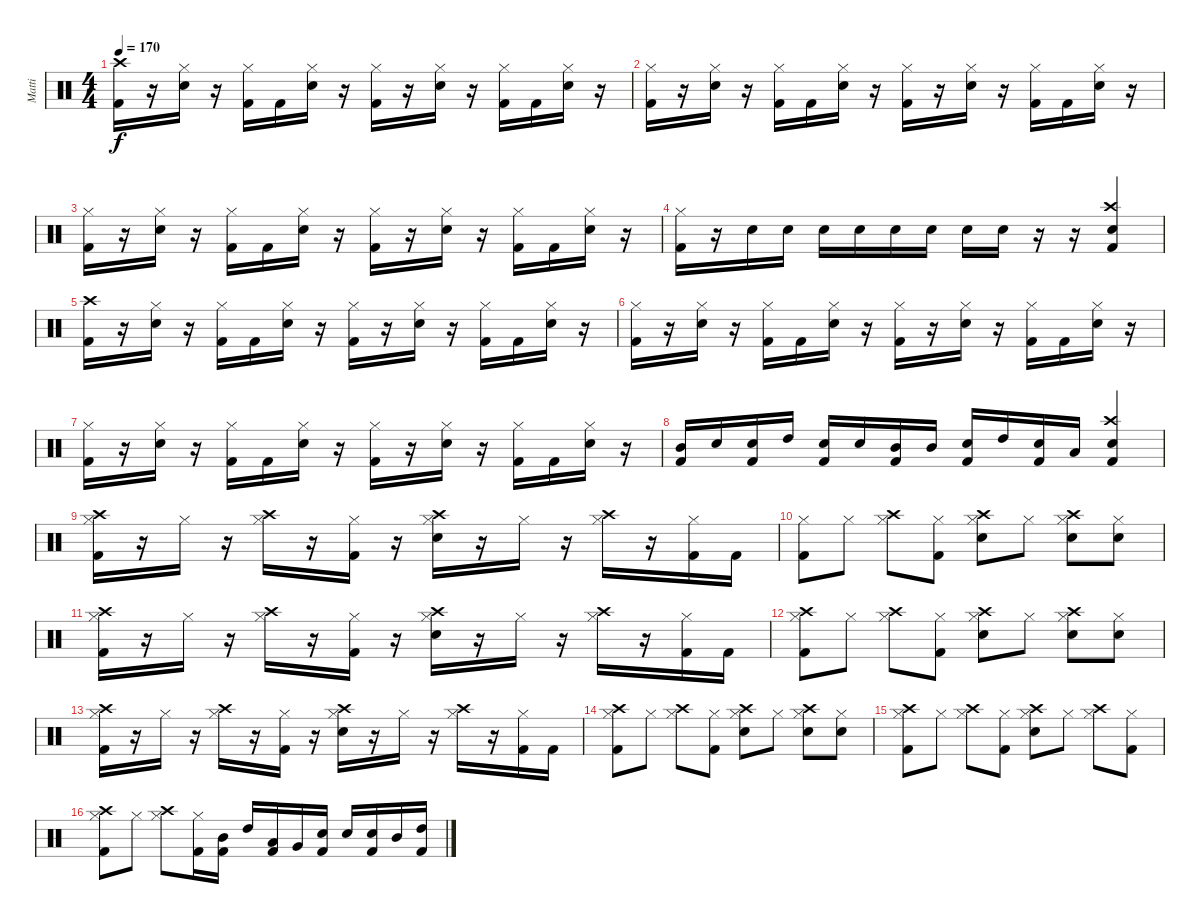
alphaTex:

\track ("Matti" "Matti") {instrument percussion}
\staff {score}
\articulation defaults
\ts (4 4)
\tempo 170
\clef neutral
\ks c
("Kick (hit) 2" "Crash high (hit)").16{dy f} r.16 ("Snare (hit) 2" "Hi-Hat (closed)").16 r.16 ("Kick (hit) 2" "Hi-Hat (closed)").16 "Kick (hit) 2".16 ("Snare (hit) 2" "Hi-Hat (closed)").16 r.16 ("Kick (hit) 2" "Hi-Hat (closed)").16 r.16 ("Snare (hit) 2" "Hi-Hat (closed)").16 r.16 ("Kick (hit) 2" "Hi-Hat (closed)").16 "Kick (hit) 2".16 ("Snare (hit) 2" "Hi-Hat (closed)").16 r.16 |
("Kick (hit) 2" "Hi-Hat (closed)").16 r.16 ("Snare (hit) 2" "Hi-Hat (closed)").16 r.16 ("Kick (hit) 2" "Hi-Hat (closed)").16 "Kick (hit) 2".16 ("Snare (hit) 2" "Hi-Hat (closed)").16 r.16 ("Kick (hit) 2" "Hi-Hat (closed)").16 r.16 ("Snare (hit) 2" "Hi-Hat (closed)").16 r.16 ("Kick (hit) 2" "Hi-Hat (closed)").16 "Kick (hit) 2".16 ("Snare (hit) 2" "Hi-Hat (closed)").16 r.16 |
("Kick (hit) 2" "Hi-Hat (closed)").16 r.16 ("Snare (hit) 2" "Hi-Hat (closed)").16 r.16 ("Kick (hit) 2" "Hi-Hat (closed)").16 "Kick (hit) 2".16 ("Snare (hit) 2" "Hi-Hat (closed)").16 r.16 ("Kick (hit) 2" "Hi-Hat (closed)").16 r.16 ("Snare (hit) 2" "Hi-Hat (closed)").16 r.16 ("Kick (hit) 2" "Hi-Hat (closed)").16 "Kick (hit) 2".16 ("Snare (hit) 2" "Hi-Hat (closed)").16 r.16 |
("Kick (hit) 2" "Hi-Hat (closed)").16 r.16 "Snare (hit) 2".16 "Snare (hit) 2".16 "Snare (hit) 2".16 "Snare (hit) 2".16 "Snare (hit) 2".16 "Snare (hit) 2".16 "Snare (hit) 2".16 "Snare (hit) 2".16 r.16 r.16 ("Crash high (hit)" "Kick (hit) 2" "Snare (hit) 2").4 |
("Kick (hit) 2" "Crash high (hit)").16 r.16 ("Snare (hit) 2" "Hi-Hat (closed)").16 r.16 ("Kick (hit) 2" "Hi-Hat (closed)").16 "Kick (hit) 2".16 ("Snare (hit) 2" "Hi-Hat (closed)").16 r.16 ("Kick (hit) 2" "Hi-Hat (closed)").16 r.16 ("Snare (hit) 2" "Hi-Hat (closed)").16 r.16 ("Kick (hit) 2" "Hi-Hat (closed)").16 "Kick (hit) 2".16 ("Snare (hit) 2" "Hi-Hat (closed)").16 r.16 |
("Kick (hit) 2" "Hi-Hat (closed)").16 r.16 ("Snare (hit) 2" "Hi-Hat (closed)").16 r.16 ("Kick (hit) 2" "Hi-Hat (closed)").16 "Kick (hit) 2".16 ("Snare (hit) 2" "Hi-Hat (closed)").16 r.16 ("Kick (hit) 2" "Hi-Hat (closed)").16 r.16 ("Snare (hit) 2" "Hi-Hat (closed)").16 r.16 ("Kick (hit) 2" "Hi-Hat (closed)").16 "Kick (hit) 2".16 ("Snare (hit) 2" "Hi-Hat (closed)").16 r.16 |
("Kick (hit) 2" "Hi-Hat (closed)").16 r.16 ("Snare (hit) 2" "Hi-Hat (closed)").16 r.16 ("Kick (hit) 2" "Hi-Hat (closed)").16 "Kick (hit) 2".16 ("Snare (hit) 2" "Hi-Hat (closed)").16 r.16 ("Kick (hit) 2" "Hi-Hat (closed)").16 r.16 ("Snare (hit) 2" "Hi-Hat (closed)").16 r.16 ("Kick (hit) 2" "Hi-Hat (closed)").16 "Kick (hit) 2".16 ("Snare (hit) 2" "Hi-Hat (closed)").16 r.16 |
("Mid Tom (hit)" "Kick (hit) 2").16 "Snare (hit) 2".16 ("Snare (hit) 2" "Kick (hit) 2").16 "High Tom (hit)".16 ("Snare (hit) 2" "Kick (hit) 2").16 "Snare (hit) 2".16 ("Mid Tom (hit)" "Kick (hit) 2").16 "Mid Tom (hit)".16 ("Electric Snare (hit)" "Kick (hit) 2").16 "High Tom (hit)".16 ("Electric Snare (hit)" "Kick (hit) 2").16 "Low Tom (hit)".16 ("Snare (hit) 2" "Kick (hit) 2" "Crash high (hit)").4 |
("Kick (hit) 2" "Hi-Hat (closed)" "Crash high (hit)").16 r.16 "Hi-Hat (closed)".16 r.16 ("Hi-Hat (closed)" "Crash high (hit)").16 r.16 ("Kick (hit) 2" "Hi-Hat (closed)").16 r.16 ("Snare (hit) 2" "Hi-Hat (closed)" "Crash high (hit)").16 r.16 "Hi-Hat (closed)".16 r.16 ("Hi-Hat (closed)" "Crash high (hit)").16 r.16 ("Kick (hit) 2" "Hi-Hat (closed)").16 "Kick (hit) 2".16 |
("Kick (hit) 2" "Hi-Hat (closed)").8 "Hi-Hat (closed)".8 ("Hi-Hat (closed)" "Crash high (hit)").8 ("Kick (hit) 2" "Hi-Hat (closed)").8 ("Snare (hit) 2" "Hi-Hat (closed)" "Crash high (hit)").8 "Hi-Hat (closed)".8 ("Snare (hit) 2" "Hi-Hat (closed)" "Crash high (hit)").8 ("Snare (hit) 2" "Hi-Hat (closed)").8 |
("Kick (hit) 2" "Hi-Hat (closed)" "Crash high (hit)").16 r.16 "Hi-Hat (closed)".16 r.16 ("Hi-Hat (closed)" "Crash high (hit)").16 r.16 ("Kick (hit) 2" "Hi-Hat (closed)").16 r.16 ("Snare (hit) 2" "Hi-Hat (closed)" "Crash high (hit)").16 r.16 "Hi-Hat (closed)".16 r.16 ("Hi-Hat (closed)" "Crash high (hit)").16 r.16 ("Kick (hit) 2" "Hi-Hat (closed)").16 "Kick (hit) 2".16 |
("Kick (hit) 2" "Hi-Hat (closed)" "Crash high (hit)").8 "Hi-Hat (closed)".8 ("Hi-Hat (closed)" "Crash high (hit)").8 ("Kick (hit) 2" "Hi-Hat (closed)").8 ("Snare (hit) 2" "Hi-Hat (closed)" "Crash high (hit)").8 "Hi-Hat (closed)".8 ("Snare (hit) 2" "Hi-Hat (closed)" "Crash high (hit)").8 ("Snare (hit) 2" "Hi-Hat (closed)").8 |
("Kick (hit) 2" "Hi-Hat (closed)" "Crash high (hit)").16 r.16 "Hi-Hat (closed)".16 r.16 ("Hi-Hat (closed)" "Crash high (hit)").16 r.16 ("Kick (hit) 2" "Hi-Hat (closed)").16 r.16 ("Snare (hit) 2" "Hi-Hat (closed)" "Crash high (hit)").16 r.16 "Hi-Hat (closed)".16 r.16 ("Hi-Hat (closed)" "Crash high (hit)").16 r.16 ("Kick (hit) 2" "Hi-Hat (closed)").16 "Kick (hit) 2".16 |
("Kick (hit) 2" "Hi-Hat (closed)" "Crash high (hit)").8 "Hi-Hat (closed)".8 ("Hi-Hat (closed)" "Crash high (hit)").8 ("Kick (hit) 2" "Hi-Hat (closed)").8 ("Snare (hit) 2" "Hi-Hat (closed)" "Crash high (hit)").8 "Hi-Hat (closed)".8 ("Snare (hit) 2" "Hi-Hat (closed)" "Crash high (hit)").8 ("Snare (hit) 2" "Hi-Hat (closed)").8 |
("Kick (hit) 2" "Hi-Hat (closed)" "Crash high (hit)").8 "Hi-Hat (closed)".8 ("Hi-Hat (closed)" "Crash high (hit)").8 ("Kick (hit) 2" "Hi-Hat (closed)").8 ("Snare (hit) 2" "Hi-Hat (closed)" "Crash high (hit)").8 "Hi-Hat (closed)".8 ("Hi-Hat (closed)" "Crash high (hit)").8 ("Kick (hit) 2" "Hi-Hat (closed)").8 |
("Kick (hit) 2" "Hi-Hat (closed)" "Crash high (hit)").8 "Hi-Hat (closed)".8 ("Hi-Hat (closed)" "Crash high (hit)").8 ("Kick (hit) 2" "Hi-Hat (closed)").16 ("Mid Tom (hit)" "Kick (hit) 2").16 "High Tom (hit)".16 ("Low Tom (hit)" "Kick (hit) 2").16 "Very Low Tom (hit)".16 ("Electric Snare (hit)" "Kick (hit) 2").16 "Snare (hit) 2".16 ("Snare (hit) 2" "Kick (hit) 2").16 "Mid Tom (hit)".16 ("High Tom (hit)" "Kick (hit) 2").16
